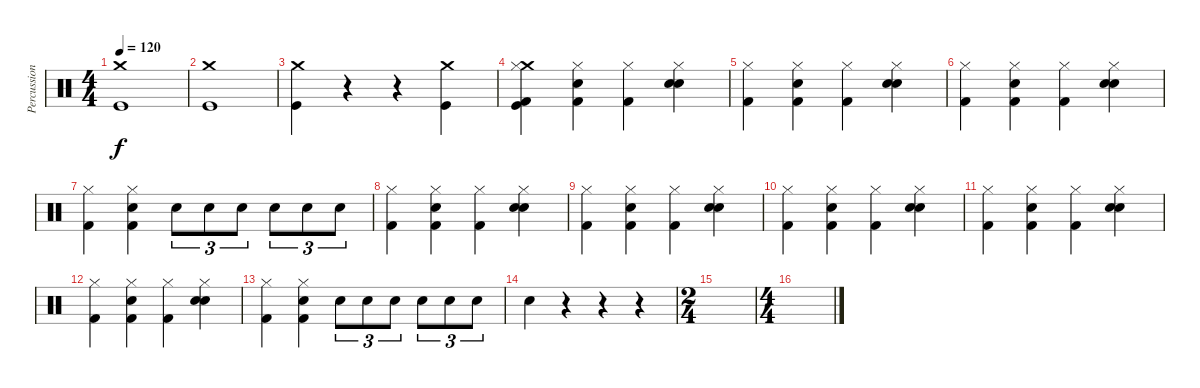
\track ("Percussion" "Percussion") {instrument percussion}
\staff {score}
\articulation defaults
\ts (4 4)
\tempo 120
\clef neutral
\ks c
("Crash medium (hit)" "Kick (hit)").1{dy f} |
("Crash medium (hit)" "Kick (hit)").1 |
("Crash medium (hit)" "Kick (hit)").4 r.4 r.4 ("Crash medium (hit)" "Kick (hit)").4 |
("Crash medium (hit)" "Hi-Hat (closed)" "Kick (hit) 2" "Kick (hit)").4 ("Hi-Hat (closed)" "Snare (hit) 2" "Kick (hit) 2").4 ("Hi-Hat (closed)" "Kick (hit) 2").4 ("Hi-Hat (closed)" "Snare (hit) 2" "Snare (hit) 2").4 |
("Hi-Hat (closed)" "Kick (hit) 2").4 ("Hi-Hat (closed)" "Snare (hit) 2" "Kick (hit) 2").4 ("Hi-Hat (closed)" "Kick (hit) 2").4 ("Hi-Hat (closed)" "Snare (hit) 2" "Snare (hit) 2").4 |
("Hi-Hat (closed)" "Kick (hit) 2").4 ("Hi-Hat (closed)" "Snare (hit) 2" "Kick (hit) 2").4 ("Hi-Hat (closed)" "Kick (hit) 2").4 ("Hi-Hat (closed)" "Snare (hit) 2" "Snare (hit) 2").4 |
("Hi-Hat (closed)" "Kick (hit) 2").4 ("Hi-Hat (closed)" "Snare (hit) 2" "Kick (hit) 2").4 "Snare (hit) 2".8{tu (3 2)} "Snare (hit) 2".8{tu (3 2)} "Snare (hit) 2".8{tu (3 2)} "Snare (hit) 2".8{tu (3 2)} "Snare (hit) 2".8{tu (3 2)} "Snare (hit) 2".8{tu (3 2)} |
("Hi-Hat (closed)" "Kick (hit) 2").4 ("Hi-Hat (closed)" "Snare (hit) 2" "Kick (hit) 2").4 ("Hi-Hat (closed)" "Kick (hit) 2").4 ("Hi-Hat (closed)" "Snare (hit) 2" "Snare (hit) 2").4 |
("Hi-Hat (closed)" "Kick (hit) 2").4 ("Hi-Hat (closed)" "Snare (hit) 2" "Kick (hit) 2").4 ("Hi-Hat (closed)" "Kick (hit) 2").4 ("Hi-Hat (closed)" "Snare (hit) 2" "Snare (hit) 2").4 |
("Hi-Hat (closed)" "Kick (hit) 2").4 ("Hi-Hat (closed)" "Snare (hit) 2" "Kick (hit) 2").4 ("Hi-Hat (closed)" "Kick (hit) 2").4 ("Hi-Hat (closed)" "Snare (hit) 2" "Snare (hit) 2").4 |
("Hi-Hat (closed)" "Kick (hit) 2").4 ("Hi-Hat (closed)" "Snare (hit) 2" "Kick (hit) 2").4 ("Hi-Hat (closed)" "Kick (hit) 2").4 ("Hi-Hat (closed)" "Snare (hit) 2" "Snare (hit) 2").4 |
("Hi-Hat (closed)" "Kick (hit) 2").4 ("Hi-Hat (closed)" "Snare (hit) 2" "Kick (hit) 2").4 ("Hi-Hat (closed)" "Kick (hit) 2").4 ("Hi-Hat (closed)" "Snare (hit) 2" "Snare (hit) 2").4 |
("Hi-Hat (closed)" "Kick (hit) 2").4 ("Hi-Hat (closed)" "Snare (hit) 2" "Kick (hit) 2").4 "Snare (hit) 2".8{tu (3 2)} "Snare (hit) 2".8{tu (3 2)} "Snare (hit) 2".8{tu (3 2)} "Snare (hit) 2".8{tu (3 2)} "Snare (hit) 2".8{tu (3 2)} "Snare (hit) 2".8{tu (3 2)} |
"Snare (hit) 2".4 r.4 r.4 r.4 |
\ts (2 4)
|
\ts (4 4)
